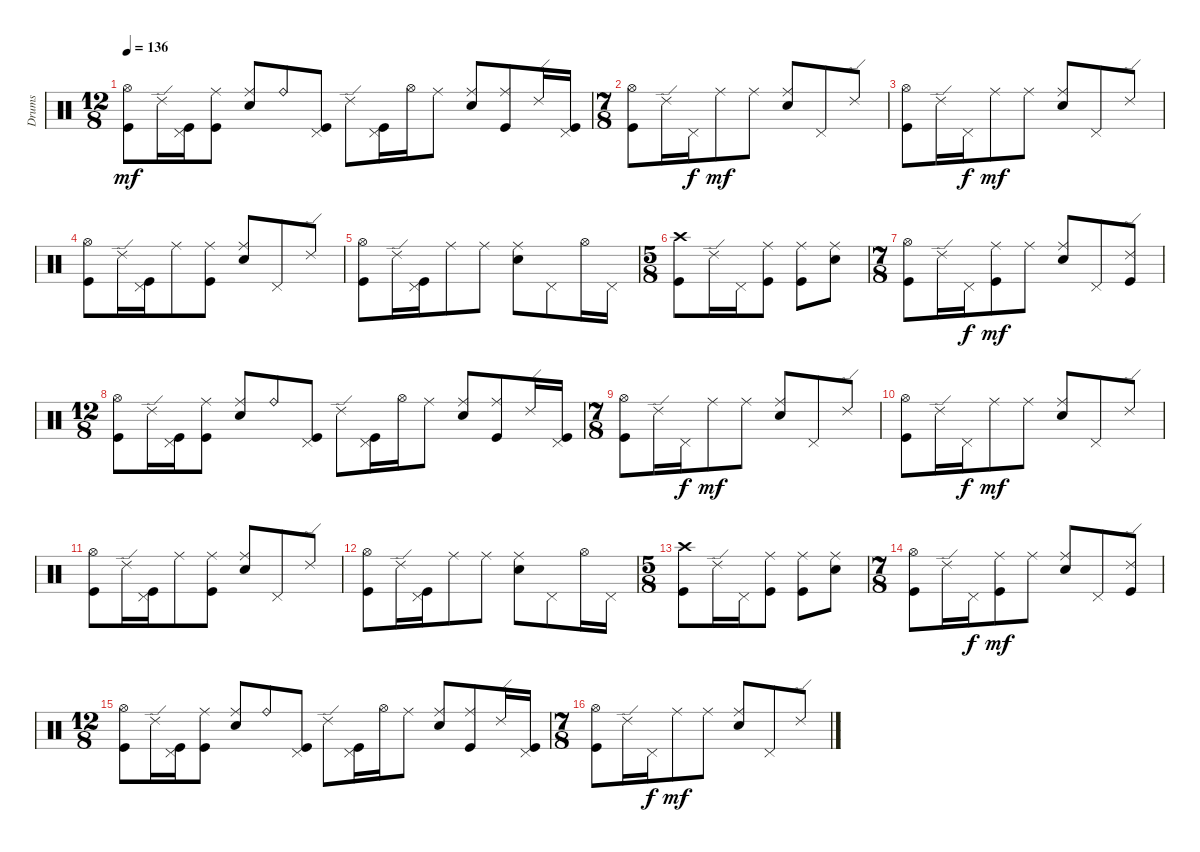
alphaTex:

\track ("Drums" "Drums") {instrument percussion}
\staff {score}
\articulation defaults
\ts (12 8)
\tempo 136
\clef neutral
\ks c
("Hi-Hat (open)" "Kick (hit)").8{dy mf} "Ride (edge) 2".16 ("Pedal Hi-Hat (hit)" "Kick (hit)").16 ("Ride (middle)" "Kick (hit)").8 ("Ride (middle)" "Electric Snare (hit)").8 "Ride (bell)".8 ("Pedal Hi-Hat (hit)" "Kick (hit)").8 "Ride (edge) 2".8 ("Pedal Hi-Hat (hit)" "Kick (hit)").16 "Hi-Hat (open)".16 "Ride (middle)".8 ("Ride (middle)" "Electric Snare (hit)").8 ("Ride (middle)" "Kick (hit)").8 "Ride (edge) 2".16 ("Pedal Hi-Hat (hit)" "Kick (hit)").16 |
\ts (7 8)
("Hi-Hat (open)" "Kick (hit)").8 "Ride (edge) 2".16 "Pedal Hi-Hat (hit)".16{dy f} "Ride (middle)".8{dy mf} "Ride (middle)".8 ("Ride (middle)" "Electric Snare (hit)").8 "Pedal Hi-Hat (hit)".8 "Ride (edge) 2".8 |
("Hi-Hat (open)" "Kick (hit)").8 "Ride (edge) 2".16 "Pedal Hi-Hat (hit)".16{dy f} "Ride (middle)".8{dy mf} "Ride (middle)".8 ("Ride (middle)" "Electric Snare (hit)").8 "Pedal Hi-Hat (hit)".8 "Ride (edge) 2".8 |
("Hi-Hat (open)" "Kick (hit)").8 "Ride (edge) 2".16 ("Pedal Hi-Hat (hit)" "Kick (hit)").16 "Ride (middle)".8 ("Ride (middle)" "Kick (hit)").8 ("Ride (middle)" "Electric Snare (hit)").8 "Pedal Hi-Hat (hit)".8 "Ride (edge) 2".8 |
("Hi-Hat (open)" "Kick (hit)").8 "Ride (edge) 2".16 ("Pedal Hi-Hat (hit)" "Kick (hit)").16 "Ride (middle)".8 "Ride (middle)".8 ("Ride (middle)" "Electric Snare (hit)").8 "Pedal Hi-Hat (hit)".8 "Hi-Hat (open)".16 "Pedal Hi-Hat (hit)".16 |
\ts (5 8)
("Crash high (hit)" "Kick (hit)").8 "Ride (edge) 2".16 "Pedal Hi-Hat (hit)".16 ("Ride (middle)" "Kick (hit)").8 ("Ride (middle)" "Kick (hit)").8 ("Ride (middle)" "Electric Snare (hit)").8 |
\ts (7 8)
("Hi-Hat (open)" "Kick (hit)").8 "Ride (edge) 2".16 "Pedal Hi-Hat (hit)".16{dy f} ("Ride (middle)" "Kick (hit)").8{dy mf} "Ride (middle)".8 ("Ride (middle)" "Electric Snare (hit)").8 "Pedal Hi-Hat (hit)".8 ("Ride (edge) 2" "Kick (hit)").8 |
\ts (12 8)
("Hi-Hat (open)" "Kick (hit)").8 "Ride (edge) 2".16 ("Pedal Hi-Hat (hit)" "Kick (hit)").16 ("Ride (middle)" "Kick (hit)").8 ("Ride (middle)" "Electric Snare (hit)").8 "Ride (bell)".8 ("Pedal Hi-Hat (hit)" "Kick (hit)").8 "Ride (edge) 2".8 ("Pedal Hi-Hat (hit)" "Kick (hit)").16 "Hi-Hat (open)".16 "Ride (middle)".8 ("Ride (middle)" "Electric Snare (hit)").8 ("Ride (middle)" "Kick (hit)").8 "Ride (edge) 2".16 ("Pedal Hi-Hat (hit)" "Kick (hit)").16 |
\ts (7 8)
("Hi-Hat (open)" "Kick (hit)").8 "Ride (edge) 2".16 "Pedal Hi-Hat (hit)".16{dy f} "Ride (middle)".8{dy mf} "Ride (middle)".8 ("Ride (middle)" "Electric Snare (hit)").8 "Pedal Hi-Hat (hit)".8 "Ride (edge) 2".8 |
("Hi-Hat (open)" "Kick (hit)").8 "Ride (edge) 2".16 "Pedal Hi-Hat (hit)".16{dy f} "Ride (middle)".8{dy mf} "Ride (middle)".8 ("Ride (middle)" "Electric Snare (hit)").8 "Pedal Hi-Hat (hit)".8 "Ride (edge) 2".8 |
("Hi-Hat (open)" "Kick (hit)").8 "Ride (edge) 2".16 ("Pedal Hi-Hat (hit)" "Kick (hit)").16 "Ride (middle)".8 ("Ride (middle)" "Kick (hit)").8 ("Ride (middle)" "Electric Snare (hit)").8 "Pedal Hi-Hat (hit)".8 "Ride (edge) 2".8 |
("Hi-Hat (open)" "Kick (hit)").8 "Ride (edge) 2".16 ("Pedal Hi-Hat (hit)" "Kick (hit)").16 "Ride (middle)".8 "Ride (middle)".8 ("Ride (middle)" "Electric Snare (hit)").8 "Pedal Hi-Hat (hit)".8 "Hi-Hat (open)".16 "Pedal Hi-Hat (hit)".16 |
\ts (5 8)
("Crash high (hit)" "Kick (hit)").8 "Ride (edge) 2".16 "Pedal Hi-Hat (hit)".16 ("Ride (middle)" "Kick (hit)").8 ("Ride (middle)" "Kick (hit)").8 ("Ride (middle)" "Electric Snare (hit)").8 |
\ts (7 8)
("Hi-Hat (open)" "Kick (hit)").8 "Ride (edge) 2".16 "Pedal Hi-Hat (hit)".16{dy f} ("Ride (middle)" "Kick (hit)").8{dy mf} "Ride (middle)".8 ("Ride (middle)" "Electric Snare (hit)").8 "Pedal Hi-Hat (hit)".8 ("Ride (edge) 2" "Kick (hit)").8 |
\ts (12 8)
("Hi-Hat (open)" "Kick (hit)").8 "Ride (edge) 2".16 ("Pedal Hi-Hat (hit)" "Kick (hit)").16 ("Ride (middle)" "Kick (hit)").8 ("Ride (middle)" "Electric Snare (hit)").8 "Ride (bell)".8 ("Pedal Hi-Hat (hit)" "Kick (hit)").8 "Ride (edge) 2".8 ("Pedal Hi-Hat (hit)" "Kick (hit)").16 "Hi-Hat (open)".16 "Ride (middle)".8 ("Ride (middle)" "Electric Snare (hit)").8 ("Ride (middle)" "Kick (hit)").8 "Ride (edge) 2".16 ("Pedal Hi-Hat (hit)" "Kick (hit)").16 |
\ts (7 8)
("Hi-Hat (open)" "Kick (hit)").8 "Ride (edge) 2".16 "Pedal Hi-Hat (hit)".16{dy f} "Ride (middle)".8{dy mf} "Ride (middle)".8 ("Ride (middle)" "Electric Snare (hit)").8 "Pedal Hi-Hat (hit)".8 "Ride (edge) 2".8
